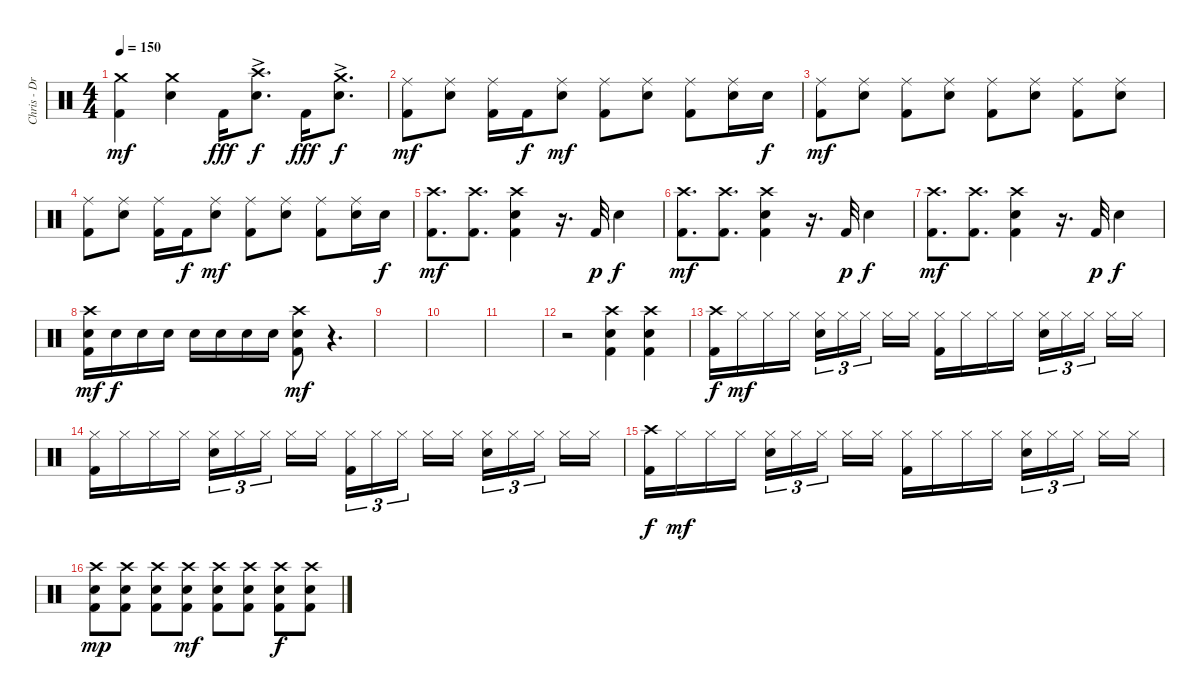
\track ("Chris - Drums" "Chris - Dr") {instrument percussion}
\staff {score}
\articulation defaults
\ts (4 4)
\tempo 150
\clef neutral
\ks c
("Crash medium (hit)" "Kick (hit) 2").4{dy mf} ("Crash medium (hit)" "Electric Snare (hit)").4 "Kick (hit) 2".16{dy fff} ("Crash high (hit)" "Electric Snare (hit)"{ac}).8{d dy f} "Kick (hit) 2".16{dy fff} ("Crash medium (hit)" "Electric Snare (hit)"{ac}).8{d dy f} |
("Ride (middle)" "Kick (hit) 2").8{dy mf} ("Ride (middle)" "Electric Snare (hit)").8 ("Ride (middle)" "Kick (hit) 2").16 "Kick (hit) 2".16{dy f} ("Ride (middle)" "Electric Snare (hit)").8{dy mf} ("Ride (middle)" "Kick (hit) 2").8 ("Ride (middle)" "Electric Snare (hit)").8 ("Ride (middle)" "Kick (hit) 2").8 ("Ride (middle)" "Electric Snare (hit)").16 "Electric Snare (hit)".16{dy f} |
("Ride (middle)" "Kick (hit) 2").8{dy mf} ("Ride (middle)" "Electric Snare (hit)").8 ("Ride (middle)" "Kick (hit) 2").8 ("Ride (middle)" "Electric Snare (hit)").8 ("Ride (middle)" "Kick (hit) 2").8 ("Ride (middle)" "Electric Snare (hit)").8 ("Ride (middle)" "Kick (hit) 2").8 ("Ride (middle)" "Electric Snare (hit)").8 |
("Ride (middle)" "Kick (hit) 2").8 ("Ride (middle)" "Electric Snare (hit)").8 ("Ride (middle)" "Kick (hit) 2").16 "Kick (hit) 2".16{dy f} ("Ride (middle)" "Electric Snare (hit)").8{dy mf} ("Ride (middle)" "Kick (hit) 2").8 ("Ride (middle)" "Electric Snare (hit)").8 ("Ride (middle)" "Kick (hit) 2").8 ("Ride (middle)" "Electric Snare (hit)").16 "Electric Snare (hit)".16{dy f} |
("Crash high (hit)" "Kick (hit) 2").8{d dy mf} ("Crash high (hit)" "Kick (hit) 2").8{d} ("Crash high (hit)" "Electric Snare (hit)" "Kick (hit) 2").4 r.16{d} "Kick (hit) 2".32{dy p} "Electric Snare (hit)".4{dy f} |
("Crash high (hit)" "Kick (hit) 2").8{d dy mf} ("Crash high (hit)" "Kick (hit) 2").8{d} ("Crash high (hit)" "Electric Snare (hit)" "Kick (hit) 2").4 r.16{d} "Kick (hit) 2".32{dy p} "Electric Snare (hit)".4{dy f} |
("Crash high (hit)" "Kick (hit) 2").8{d dy mf} ("Crash high (hit)" "Kick (hit) 2").8{d} ("Crash high (hit)" "Electric Snare (hit)" "Kick (hit) 2").4 r.16{d} "Kick (hit) 2".32{dy p} "Electric Snare (hit)".4{dy f} |
("Crash high (hit)" "Electric Snare (hit)" "Kick (hit) 2").16{dy mf} "Electric Snare (hit)".16{dy f} "Electric Snare (hit)".16 "Electric Snare (hit)".16 "Electric Snare (hit)".16 "Electric Snare (hit)".16 "Electric Snare (hit)".16 "Electric Snare (hit)".16 ("Crash high (hit)" "Electric Snare (hit)" "Kick (hit) 2").8{dy mf} r.4{d} |
|
|
|
r.2 ("Crash high (hit)" "Electric Snare (hit)" "Kick (hit) 2").4 ("Crash high (hit)" "Electric Snare (hit)" "Kick (hit) 2").4 |
("Crash high (hit)" "Kick (hit) 2").16{dy f} "Hi-Hat (closed)".16{dy mf} "Hi-Hat (closed)".16 "Hi-Hat (closed)".16 ("Hi-Hat (closed)" "Electric Snare (hit)").16{tu (3 2)} "Hi-Hat (closed)".16{tu (3 2)} "Hi-Hat (closed)".16{tu (3 2) beam splitsecondary} "Hi-Hat (closed)".16 "Hi-Hat (closed)".16 ("Hi-Hat (closed)" "Kick (hit) 2").16 "Hi-Hat (closed)".16 "Hi-Hat (closed)".16 "Hi-Hat (closed)".16 ("Hi-Hat (closed)" "Electric Snare (hit)").16{tu (3 2)} "Hi-Hat (closed)".16{tu (3 2)} "Hi-Hat (closed)".16{tu (3 2) beam splitsecondary} "Hi-Hat (closed)".16 "Hi-Hat (closed)".16 |
("Hi-Hat (closed)" "Kick (hit) 2").16 "Hi-Hat (closed)".16 "Hi-Hat (closed)".16 "Hi-Hat (closed)".16 ("Hi-Hat (closed)" "Electric Snare (hit)").16{tu (3 2)} "Hi-Hat (closed)".16{tu (3 2)} "Hi-Hat (closed)".16{tu (3 2) beam splitsecondary} "Hi-Hat (closed)".16 "Hi-Hat (closed)".16 ("Hi-Hat (closed)" "Kick (hit) 2").16{tu (3 2)} "Hi-Hat (closed)".16{tu (3 2)} "Hi-Hat (closed)".16{tu (3 2) beam splitsecondary} "Hi-Hat (closed)".16 "Hi-Hat (closed)".16 ("Hi-Hat (closed)" "Electric Snare (hit)").16{tu (3 2)} "Hi-Hat (closed)".16{tu (3 2)} "Hi-Hat (closed)".16{tu (3 2) beam splitsecondary} "Hi-Hat (closed)".16 "Hi-Hat (closed)".16 |
("Crash high (hit)" "Kick (hit) 2").16{dy f} "Hi-Hat (closed)".16{dy mf} "Hi-Hat (closed)".16 "Hi-Hat (closed)".16 ("Hi-Hat (closed)" "Electric Snare (hit)").16{tu (3 2)} "Hi-Hat (closed)".16{tu (3 2)} "Hi-Hat (closed)".16{tu (3 2) beam splitsecondary} "Hi-Hat (closed)".16 "Hi-Hat (closed)".16 ("Hi-Hat (closed)" "Kick (hit) 2").16 "Hi-Hat (closed)".16 "Hi-Hat (closed)".16 "Hi-Hat (closed)".16 ("Hi-Hat (closed)" "Electric Snare (hit)").16{tu (3 2)} "Hi-Hat (closed)".16{tu (3 2)} "Hi-Hat (closed)".16{tu (3 2) beam splitsecondary} "Hi-Hat (closed)".16 "Hi-Hat (closed)".16 |
("Crash high (hit)" "Electric Snare (hit)" "Kick (hit) 2").8{dy mp} ("Crash high (hit)" "Electric Snare (hit)" "Kick (hit) 2").8 ("Crash high (hit)" "Electric Snare (hit)" "Kick (hit) 2").8 ("Crash high (hit)" "Electric Snare (hit)" "Kick (hit) 2").8{dy mf} ("Crash high (hit)" "Electric Snare (hit)" "Kick (hit) 2").8 ("Crash high (hit)" "Electric Snare (hit)" "Kick (hit) 2").8 ("Crash high (hit)" "Electric Snare (hit)" "Kick (hit) 2").8{dy f} ("Crash high (hit)" "Electric Snare (hit)" "Kick (hit) 2").8
